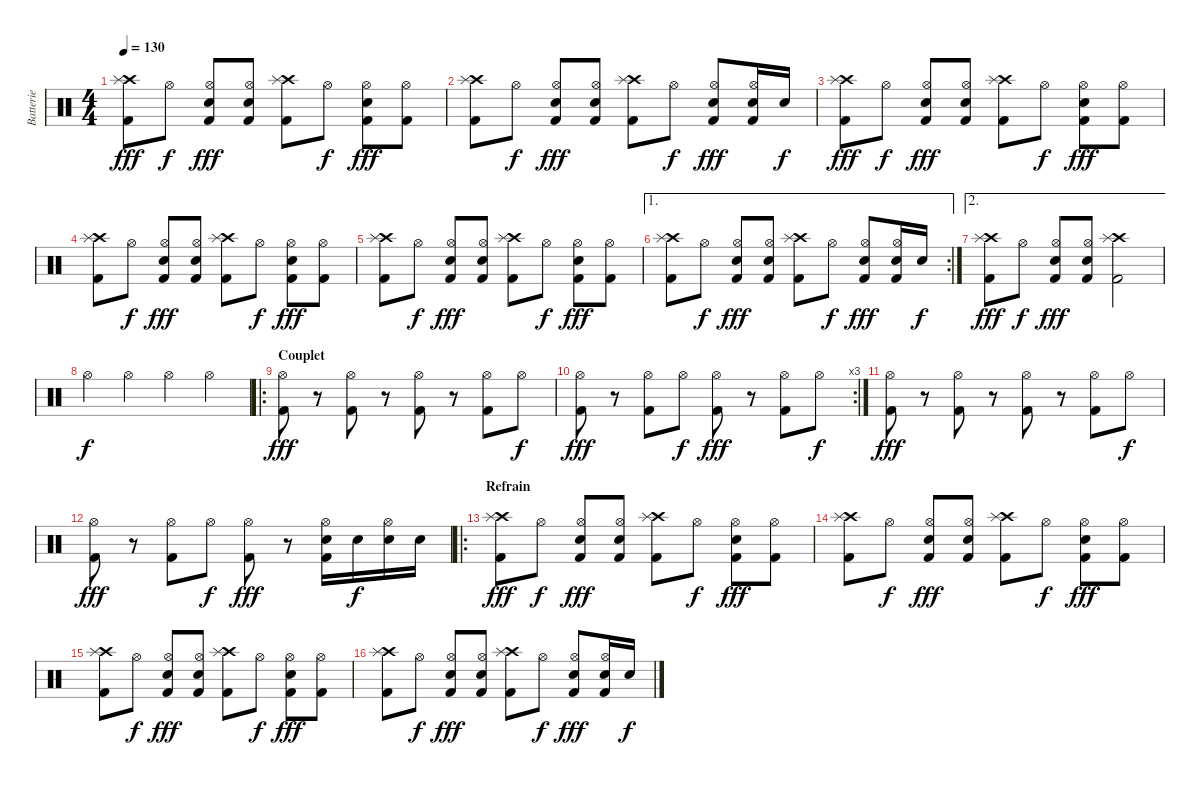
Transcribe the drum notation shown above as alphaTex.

\track ("Batterie" "Batterie") {instrument percussion}
\staff {score}
\articulation defaults
\ts (4 4)
\tempo 130
\clef neutral
\ks c
("Crash high (hit)" "Kick (hit) 2" "Splash (hit)").8{dy fff} "Hi-Hat (open)".8{dy f} ("Hi-Hat (open)" "Kick (hit) 2" "Electric Snare (hit)").8{dy fff} ("Hi-Hat (open)" "Kick (hit) 2" "Electric Snare (hit)").8 ("Crash high (hit)" "Kick (hit) 2" "Splash (hit)").8 "Hi-Hat (open)".8{dy f} ("Hi-Hat (open)" "Kick (hit) 2" "Electric Snare (hit)").8{dy fff} ("Hi-Hat (open)" "Kick (hit) 2").8 |
("Crash high (hit)" "Kick (hit) 2" "Splash (hit)").8 "Hi-Hat (open)".8{dy f} ("Hi-Hat (open)" "Kick (hit) 2" "Electric Snare (hit)").8{dy fff} ("Hi-Hat (open)" "Kick (hit) 2" "Electric Snare (hit)").8 ("Crash high (hit)" "Kick (hit) 2" "Splash (hit)").8 "Hi-Hat (open)".8{dy f} ("Hi-Hat (open)" "Kick (hit) 2" "Electric Snare (hit)").8{dy fff} ("Hi-Hat (open)" "Kick (hit) 2" "Electric Snare (hit)").16 "Electric Snare (hit)".16{dy f} |
("Crash high (hit)" "Kick (hit) 2" "Splash (hit)").8{dy fff} "Hi-Hat (open)".8{dy f} ("Hi-Hat (open)" "Kick (hit) 2" "Electric Snare (hit)").8{dy fff} ("Hi-Hat (open)" "Kick (hit) 2" "Electric Snare (hit)").8 ("Crash high (hit)" "Kick (hit) 2" "Splash (hit)").8 "Hi-Hat (open)".8{dy f} ("Hi-Hat (open)" "Kick (hit) 2" "Electric Snare (hit)").8{dy fff} ("Hi-Hat (open)" "Kick (hit) 2").8 |
("Crash high (hit)" "Kick (hit) 2" "Splash (hit)").8 "Hi-Hat (open)".8{dy f} ("Hi-Hat (open)" "Kick (hit) 2" "Electric Snare (hit)").8{dy fff} ("Hi-Hat (open)" "Kick (hit) 2" "Electric Snare (hit)").8 ("Crash high (hit)" "Kick (hit) 2" "Splash (hit)").8 "Hi-Hat (open)".8{dy f} ("Hi-Hat (open)" "Kick (hit) 2" "Electric Snare (hit)").8{dy fff} ("Hi-Hat (open)" "Kick (hit) 2").8 |
("Crash high (hit)" "Kick (hit) 2" "Splash (hit)").8 "Hi-Hat (open)".8{dy f} ("Hi-Hat (open)" "Kick (hit) 2" "Electric Snare (hit)").8{dy fff} ("Hi-Hat (open)" "Kick (hit) 2" "Electric Snare (hit)").8 ("Crash high (hit)" "Kick (hit) 2" "Splash (hit)").8 "Hi-Hat (open)".8{dy f} ("Hi-Hat (open)" "Kick (hit) 2" "Electric Snare (hit)").8{dy fff} ("Hi-Hat (open)" "Kick (hit) 2").8 |
\ae 1
\rc 2
("Crash high (hit)" "Kick (hit) 2" "Splash (hit)").8 "Hi-Hat (open)".8{dy f} ("Hi-Hat (open)" "Kick (hit) 2" "Electric Snare (hit)").8{dy fff} ("Hi-Hat (open)" "Kick (hit) 2" "Electric Snare (hit)").8 ("Crash high (hit)" "Kick (hit) 2" "Splash (hit)").8 "Hi-Hat (open)".8{dy f} ("Hi-Hat (open)" "Kick (hit) 2" "Electric Snare (hit)").8{dy fff} ("Hi-Hat (open)" "Kick (hit) 2" "Electric Snare (hit)").16 "Electric Snare (hit)".16{dy f} |
\ae 2
("Crash high (hit)" "Kick (hit) 2" "Splash (hit)").8{dy fff} "Hi-Hat (open)".8{dy f} ("Hi-Hat (open)" "Kick (hit) 2" "Electric Snare (hit)").8{dy fff} ("Hi-Hat (open)" "Kick (hit) 2" "Electric Snare (hit)").8 ("Crash high (hit)" "Kick (hit) 2" "Splash (hit)").2 |
"Hi-Hat (open)".4{dy f} "Hi-Hat (open)".4 "Hi-Hat (open)".4 "Hi-Hat (open)".4 |
\ro
\section ("" "Couplet")
("Hi-Hat (open)" "Kick (hit) 2").8{dy fff} r.8 ("Hi-Hat (open)" "Kick (hit) 2").8 r.8 ("Hi-Hat (open)" "Kick (hit) 2").8 r.8 ("Hi-Hat (open)" "Kick (hit) 2").8 "Hi-Hat (open)".8{dy f} |
\rc 3
("Hi-Hat (open)" "Kick (hit) 2").8{dy fff} r.8 ("Hi-Hat (open)" "Kick (hit) 2").8 "Hi-Hat (open)".8{dy f} ("Hi-Hat (open)" "Kick (hit) 2").8{dy fff} r.8 ("Hi-Hat (open)" "Kick (hit) 2").8 "Hi-Hat (open)".8{dy f} |
("Hi-Hat (open)" "Kick (hit) 2").8{dy fff} r.8 ("Hi-Hat (open)" "Kick (hit) 2").8 r.8 ("Hi-Hat (open)" "Kick (hit) 2").8 r.8 ("Hi-Hat (open)" "Kick (hit) 2").8 "Hi-Hat (open)".8{dy f} |
("Hi-Hat (open)" "Kick (hit) 2").8{dy fff} r.8 ("Hi-Hat (open)" "Kick (hit) 2").8 "Hi-Hat (open)".8{dy f} ("Hi-Hat (open)" "Kick (hit) 2").8{dy fff} r.8 ("Hi-Hat (open)" "Kick (hit) 2" "Electric Snare (hit)").16 "Electric Snare (hit)".16{dy f} ("Hi-Hat (open)" "Electric Snare (hit)").16 "Electric Snare (hit)".16 |
\ro
\section ("" "Refrain")
("Crash high (hit)" "Kick (hit) 2" "Splash (hit)").8{dy fff} "Hi-Hat (open)".8{dy f} ("Hi-Hat (open)" "Kick (hit) 2" "Electric Snare (hit)").8{dy fff} ("Hi-Hat (open)" "Kick (hit) 2" "Electric Snare (hit)").8 ("Crash high (hit)" "Kick (hit) 2" "Splash (hit)").8 "Hi-Hat (open)".8{dy f} ("Hi-Hat (open)" "Kick (hit) 2" "Electric Snare (hit)").8{dy fff} ("Hi-Hat (open)" "Kick (hit) 2").8 |
("Crash high (hit)" "Kick (hit) 2" "Splash (hit)").8 "Hi-Hat (open)".8{dy f} ("Hi-Hat (open)" "Kick (hit) 2" "Electric Snare (hit)").8{dy fff} ("Hi-Hat (open)" "Kick (hit) 2" "Electric Snare (hit)").8 ("Crash high (hit)" "Kick (hit) 2" "Splash (hit)").8 "Hi-Hat (open)".8{dy f} ("Hi-Hat (open)" "Kick (hit) 2" "Electric Snare (hit)").8{dy fff} ("Hi-Hat (open)" "Kick (hit) 2").8 |
("Crash high (hit)" "Kick (hit) 2" "Splash (hit)").8 "Hi-Hat (open)".8{dy f} ("Hi-Hat (open)" "Kick (hit) 2" "Electric Snare (hit)").8{dy fff} ("Hi-Hat (open)" "Kick (hit) 2" "Electric Snare (hit)").8 ("Crash high (hit)" "Kick (hit) 2" "Splash (hit)").8 "Hi-Hat (open)".8{dy f} ("Hi-Hat (open)" "Kick (hit) 2" "Electric Snare (hit)").8{dy fff} ("Hi-Hat (open)" "Kick (hit) 2").8 |
("Crash high (hit)" "Kick (hit) 2" "Splash (hit)").8 "Hi-Hat (open)".8{dy f} ("Hi-Hat (open)" "Kick (hit) 2" "Electric Snare (hit)").8{dy fff} ("Hi-Hat (open)" "Kick (hit) 2" "Electric Snare (hit)").8 ("Crash high (hit)" "Kick (hit) 2" "Splash (hit)").8 "Hi-Hat (open)".8{dy f} ("Hi-Hat (open)" "Kick (hit) 2" "Electric Snare (hit)").8{dy fff} ("Hi-Hat (open)" "Kick (hit) 2" "Electric Snare (hit)").16 "Electric Snare (hit)".16{dy f}
